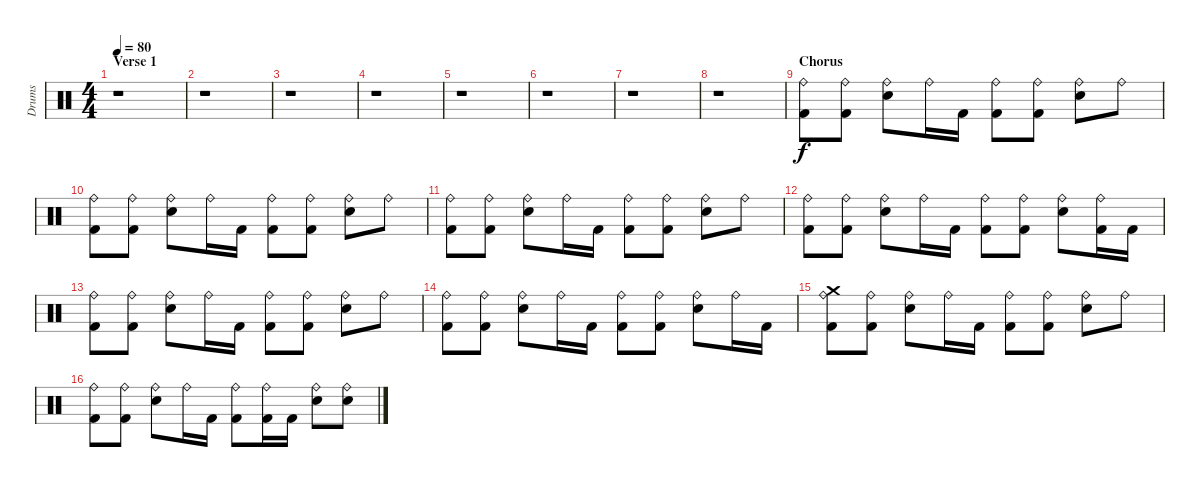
\track ("Drums" "Drums") {instrument percussion}
\staff {score}
\articulation defaults
\ts (4 4)
\section ("" "Verse 1")
\tempo 80
\clef neutral
\ks c
r.1{dy f} |
r.1 |
r.1 |
r.1 |
r.1 |
r.1 |
r.1 |
r.1 |
\section ("" "Chorus")
("Kick (hit) 2" "Ride (bell)").8 ("Kick (hit) 2" "Ride (bell)").8 ("Electric Snare (hit)" "Ride (bell)").8 "Ride (bell)".16 "Kick (hit) 2".16 ("Kick (hit) 2" "Ride (bell)").8 ("Kick (hit) 2" "Ride (bell)").8 ("Electric Snare (hit)" "Ride (bell)").8 "Ride (bell)".8 |
("Kick (hit) 2" "Ride (bell)").8 ("Kick (hit) 2" "Ride (bell)").8 ("Electric Snare (hit)" "Ride (bell)").8 "Ride (bell)".16 "Kick (hit) 2".16 ("Kick (hit) 2" "Ride (bell)").8 ("Kick (hit) 2" "Ride (bell)").8 ("Electric Snare (hit)" "Ride (bell)").8 "Ride (bell)".8 |
("Kick (hit) 2" "Ride (bell)").8 ("Kick (hit) 2" "Ride (bell)").8 ("Electric Snare (hit)" "Ride (bell)").8 "Ride (bell)".16 "Kick (hit) 2".16 ("Kick (hit) 2" "Ride (bell)").8 ("Kick (hit) 2" "Ride (bell)").8 ("Electric Snare (hit)" "Ride (bell)").8 "Ride (bell)".8 |
("Kick (hit) 2" "Ride (bell)").8 ("Kick (hit) 2" "Ride (bell)").8 ("Electric Snare (hit)" "Ride (bell)").8 "Ride (bell)".16 "Kick (hit) 2".16 ("Kick (hit) 2" "Ride (bell)").8 ("Kick (hit) 2" "Ride (bell)").8 ("Electric Snare (hit)" "Ride (bell)").8 ("Ride (bell)" "Kick (hit) 2").16 "Kick (hit) 2".16 |
("Kick (hit) 2" "Ride (bell)").8 ("Kick (hit) 2" "Ride (bell)").8 ("Electric Snare (hit)" "Ride (bell)").8 "Ride (bell)".16 "Kick (hit) 2".16 ("Kick (hit) 2" "Ride (bell)").8 ("Kick (hit) 2" "Ride (bell)").8 ("Electric Snare (hit)" "Ride (bell)").8 "Ride (bell)".8 |
("Kick (hit) 2" "Ride (bell)").8 ("Kick (hit) 2" "Ride (bell)").8 ("Electric Snare (hit)" "Ride (bell)").8 "Ride (bell)".16 "Kick (hit) 2".16 ("Kick (hit) 2" "Ride (bell)").8 ("Kick (hit) 2" "Ride (bell)").8 ("Electric Snare (hit)" "Ride (bell)").8 "Ride (bell)".16 "Kick (hit) 2".16 |
("Kick (hit) 2" "Ride (bell)" "Crash medium (hit)").8 ("Kick (hit) 2" "Ride (bell)").8 ("Electric Snare (hit)" "Ride (bell)").8 "Ride (bell)".16 "Kick (hit) 2".16 ("Kick (hit) 2" "Ride (bell)").8 ("Kick (hit) 2" "Ride (bell)").8 ("Electric Snare (hit)" "Ride (bell)").8 "Ride (bell)".8 |
("Kick (hit) 2" "Ride (bell)").8 ("Kick (hit) 2" "Ride (bell)").8 ("Electric Snare (hit)" "Ride (bell)").8 "Ride (bell)".16 "Kick (hit) 2".16 ("Kick (hit) 2" "Ride (bell)").8 ("Kick (hit) 2" "Ride (bell)").16 "Kick (hit) 2".16 ("Electric Snare (hit)" "Ride (bell)").8 ("Electric Snare (hit)" "Ride (bell)").8
